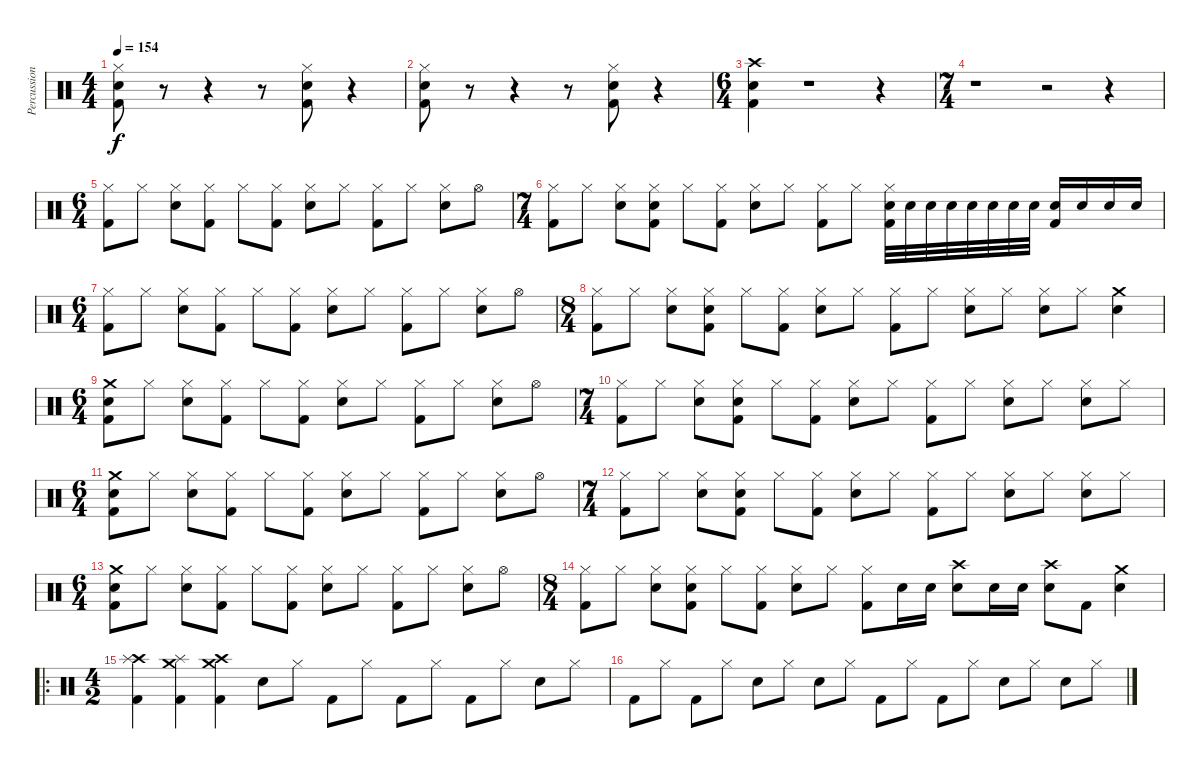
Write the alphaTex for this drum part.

\track ("Percussion" "Percussion") {instrument percussion}
\staff {score}
\articulation defaults
\ts (4 4)
\tempo 154
\clef neutral
\ks c
("Hi-Hat (closed)" "Snare (hit) 2" "Kick (hit) 2").8{dy f} r.8 r.4 r.8 ("Hi-Hat (closed)" "Snare (hit) 2" "Kick (hit) 2").8 r.4 |
("Hi-Hat (closed)" "Snare (hit) 2" "Kick (hit) 2").8 r.8 r.4 r.8 ("Hi-Hat (closed)" "Snare (hit) 2" "Kick (hit) 2").8 r.4 |
\ts (6 4)
("Crash high (hit)" "Snare (hit) 2" "Kick (hit) 2").4 r.1 r.4 |
\ts (7 4)
r.1 r.2 r.4 |
\ts (6 4)
("Hi-Hat (closed)" "Kick (hit) 2").8 "Hi-Hat (closed)".8 ("Hi-Hat (closed)" "Snare (hit) 2").8 ("Hi-Hat (closed)" "Kick (hit) 2").8 "Hi-Hat (closed)".8 ("Hi-Hat (closed)" "Kick (hit) 2").8 ("Hi-Hat (closed)" "Snare (hit) 2").8 "Hi-Hat (closed)".8 ("Hi-Hat (closed)" "Kick (hit) 2").8 "Hi-Hat (closed)".8 ("Hi-Hat (closed)" "Snare (hit) 2").8 "Hi-Hat (open)".8 |
\ts (7 4)
("Hi-Hat (closed)" "Kick (hit) 2").8 "Hi-Hat (closed)".8 ("Hi-Hat (closed)" "Snare (hit) 2").8 ("Hi-Hat (closed)" "Snare (hit) 2" "Kick (hit) 2").8 "Hi-Hat (closed)".8 ("Hi-Hat (closed)" "Kick (hit) 2").8 ("Hi-Hat (closed)" "Snare (hit) 2").8 "Hi-Hat (closed)".8 ("Hi-Hat (closed)" "Kick (hit) 2").8 "Hi-Hat (closed)".8 ("Hi-Hat (closed)" "Snare (hit) 2" "Kick (hit) 2").32 "Snare (hit) 2".32 "Snare (hit) 2".32 "Snare (hit) 2".32 "Snare (hit) 2".32 "Snare (hit) 2".32 "Snare (hit) 2".32 "Snare (hit) 2".32 ("Snare (hit) 2" "Kick (hit) 2").16 "Snare (hit) 2".16 "Snare (hit) 2".16 "Snare (hit) 2".16 |
\ts (6 4)
("Hi-Hat (closed)" "Kick (hit) 2").8 "Hi-Hat (closed)".8 ("Hi-Hat (closed)" "Snare (hit) 2").8 ("Hi-Hat (closed)" "Kick (hit) 2").8 "Hi-Hat (closed)".8 ("Hi-Hat (closed)" "Kick (hit) 2").8 ("Hi-Hat (closed)" "Snare (hit) 2").8 "Hi-Hat (closed)".8 ("Hi-Hat (closed)" "Kick (hit) 2").8 "Hi-Hat (closed)".8 ("Hi-Hat (closed)" "Snare (hit) 2").8 "Hi-Hat (open)".8 |
\ts (8 4)
("Hi-Hat (closed)" "Kick (hit) 2").8 "Hi-Hat (closed)".8 ("Hi-Hat (closed)" "Snare (hit) 2").8 ("Hi-Hat (closed)" "Snare (hit) 2" "Kick (hit) 2").8 "Hi-Hat (closed)".8 ("Hi-Hat (closed)" "Kick (hit) 2").8 ("Hi-Hat (closed)" "Snare (hit) 2").8 "Hi-Hat (closed)".8 ("Hi-Hat (closed)" "Kick (hit) 2").8 "Hi-Hat (closed)".8 ("Hi-Hat (closed)" "Snare (hit) 2").8 "Hi-Hat (closed)".8 ("Hi-Hat (closed)" "Snare (hit) 2").8 "Hi-Hat (closed)".8 ("Crash medium (hit)" "Snare (hit) 2").4 |
\ts (6 4)
("Crash medium (hit)" "Snare (hit) 2" "Kick (hit) 2").8 "Hi-Hat (closed)".8 ("Hi-Hat (closed)" "Snare (hit) 2").8 ("Hi-Hat (closed)" "Kick (hit) 2").8 "Hi-Hat (closed)".8 ("Hi-Hat (closed)" "Kick (hit) 2").8 ("Hi-Hat (closed)" "Snare (hit) 2").8 "Hi-Hat (closed)".8 ("Hi-Hat (closed)" "Kick (hit) 2").8 "Hi-Hat (closed)".8 ("Hi-Hat (closed)" "Snare (hit) 2").8 "Hi-Hat (open)".8 |
\ts (7 4)
("Hi-Hat (closed)" "Kick (hit) 2").8 "Hi-Hat (closed)".8 ("Hi-Hat (closed)" "Snare (hit) 2").8 ("Hi-Hat (closed)" "Snare (hit) 2" "Kick (hit) 2").8 "Hi-Hat (closed)".8 ("Hi-Hat (closed)" "Kick (hit) 2").8 ("Hi-Hat (closed)" "Snare (hit) 2").8 "Hi-Hat (closed)".8 ("Hi-Hat (closed)" "Kick (hit) 2").8 "Hi-Hat (closed)".8 ("Hi-Hat (closed)" "Snare (hit) 2").8 "Hi-Hat (closed)".8 ("Hi-Hat (closed)" "Snare (hit) 2").8 "Hi-Hat (closed)".8 |
\ts (6 4)
("Crash medium (hit)" "Snare (hit) 2" "Kick (hit) 2").8 "Hi-Hat (closed)".8 ("Hi-Hat (closed)" "Snare (hit) 2").8 ("Hi-Hat (closed)" "Kick (hit) 2").8 "Hi-Hat (closed)".8 ("Hi-Hat (closed)" "Kick (hit) 2").8 ("Hi-Hat (closed)" "Snare (hit) 2").8 "Hi-Hat (closed)".8 ("Hi-Hat (closed)" "Kick (hit) 2").8 "Hi-Hat (closed)".8 ("Hi-Hat (closed)" "Snare (hit) 2").8 "Hi-Hat (open)".8 |
\ts (7 4)
("Hi-Hat (closed)" "Kick (hit) 2").8 "Hi-Hat (closed)".8 ("Hi-Hat (closed)" "Snare (hit) 2").8 ("Hi-Hat (closed)" "Snare (hit) 2" "Kick (hit) 2").8 "Hi-Hat (closed)".8 ("Hi-Hat (closed)" "Kick (hit) 2").8 ("Hi-Hat (closed)" "Snare (hit) 2").8 "Hi-Hat (closed)".8 ("Hi-Hat (closed)" "Kick (hit) 2").8 "Hi-Hat (closed)".8 ("Hi-Hat (closed)" "Snare (hit) 2").8 "Hi-Hat (closed)".8 ("Hi-Hat (closed)" "Snare (hit) 2").8 "Hi-Hat (closed)".8 |
\ts (6 4)
("Crash medium (hit)" "Snare (hit) 2" "Kick (hit) 2").8 "Hi-Hat (closed)".8 ("Hi-Hat (closed)" "Snare (hit) 2").8 ("Hi-Hat (closed)" "Kick (hit) 2").8 "Hi-Hat (closed)".8 ("Hi-Hat (closed)" "Kick (hit) 2").8 ("Hi-Hat (closed)" "Snare (hit) 2").8 "Hi-Hat (closed)".8 ("Hi-Hat (closed)" "Kick (hit) 2").8 "Hi-Hat (closed)".8 ("Hi-Hat (closed)" "Snare (hit) 2").8 "Hi-Hat (open)".8 |
\ts (8 4)
("Hi-Hat (closed)" "Kick (hit) 2").8 "Hi-Hat (closed)".8 ("Hi-Hat (closed)" "Snare (hit) 2").8 ("Hi-Hat (closed)" "Snare (hit) 2" "Kick (hit) 2").8 "Hi-Hat (closed)".8 ("Hi-Hat (closed)" "Kick (hit) 2").8 ("Hi-Hat (closed)" "Snare (hit) 2").8 "Hi-Hat (closed)".8 ("Hi-Hat (closed)" "Kick (hit) 2").8 "Snare (hit) 2".16 "Snare (hit) 2".16 ("Crash high (hit)" "Snare (hit) 2").8 "Snare (hit) 2".16 "Snare (hit) 2".16 ("Crash high (hit)" "Snare (hit) 2").8 "Kick (hit) 2".8 ("Crash medium (hit)" "Snare (hit) 2").4 |
\ro
\ts (4 2)
("Crash high (hit)" "Splash (hit)" "Kick (hit) 2").4 ("Crash medium (hit)" "Splash (hit)" "Kick (hit) 2").4 ("Crash medium (hit)" "Crash high (hit)" "Kick (hit) 2").4 "Snare (hit) 2".8 "Hi-Hat (closed)".8 "Kick (hit) 2".8 "Hi-Hat (closed)".8 "Kick (hit) 2".8 "Hi-Hat (closed)".8 "Kick (hit) 2".8 "Hi-Hat (closed)".8 "Snare (hit) 2".8 "Hi-Hat (closed)".8 |
"Kick (hit) 2".8 "Hi-Hat (closed)".8 "Kick (hit) 2".8 "Hi-Hat (closed)".8 "Snare (hit) 2".8 "Hi-Hat (closed)".8 "Snare (hit) 2".8 "Hi-Hat (closed)".8 "Kick (hit) 2".8 "Hi-Hat (closed)".8 "Kick (hit) 2".8 "Hi-Hat (closed)".8 "Snare (hit) 2".8 "Hi-Hat (closed)".8 "Snare (hit) 2".8 "Hi-Hat (closed)".8
